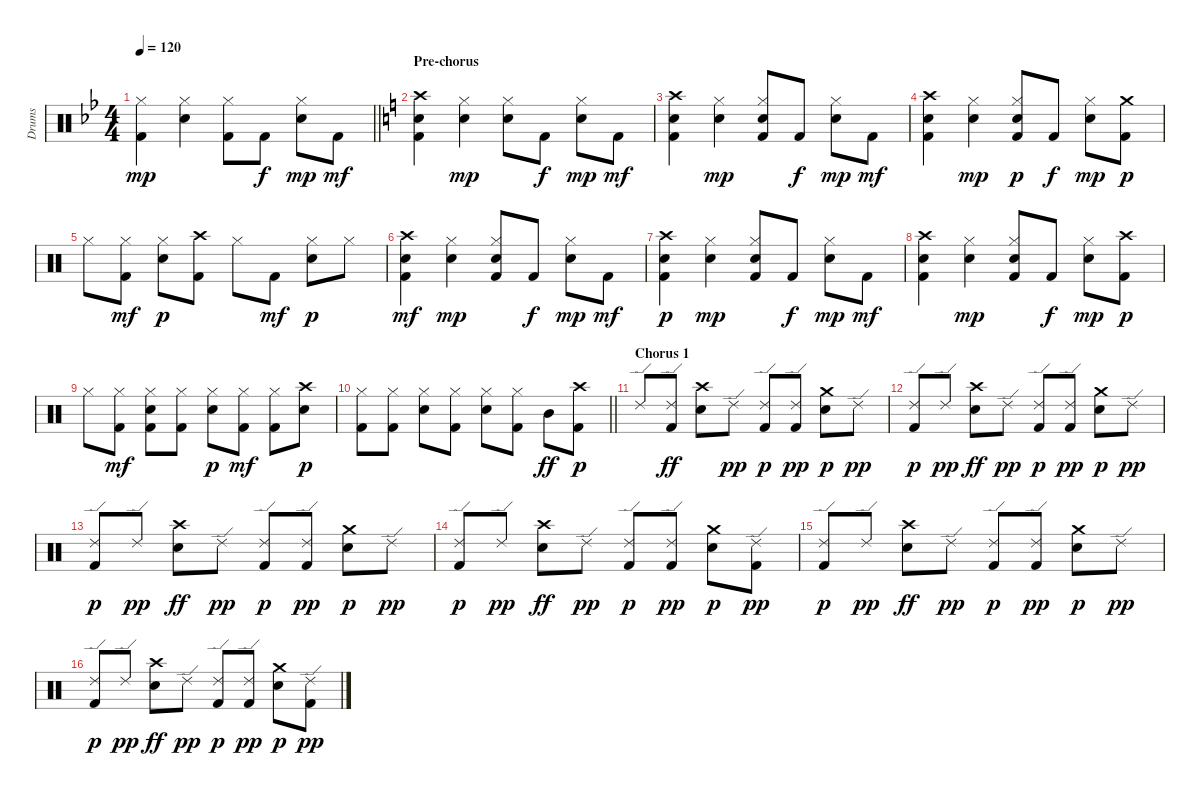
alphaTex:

\track ("Drums" "Drums") {instrument percussion}
\staff {score}
\articulation defaults
\ts (4 4)
\tempo 120
\clef neutral
\barLineRight lightlight
\ks bb
("Kick (hit) 2" "Hi-Hat (closed)").4{dy mp} ("Electric Snare (hit)" "Hi-Hat (closed)").4 ("Kick (hit) 2" "Hi-Hat (closed)").8 "Kick (hit) 2".8{dy f} ("Electric Snare (hit)" "Hi-Hat (closed)").8{dy mp} "Kick (hit) 2".8{dy mf} |
\section ("" "Pre-chorus")
\ks aminor
("Kick (hit) 2" "Crash high (hit)" "Electric Snare (hit)").4 ("Electric Snare (hit)" "Hi-Hat (closed)").4{dy mp} ("Hi-Hat (closed)" "Electric Snare (hit)").8 "Kick (hit) 2".8{dy f} ("Electric Snare (hit)" "Hi-Hat (closed)").8{dy mp} "Kick (hit) 2".8{dy mf} |
\ks c
("Kick (hit) 2" "Crash high (hit)" "Electric Snare (hit)").4 ("Electric Snare (hit)" "Hi-Hat (closed)").4{dy mp} ("Kick (hit) 2" "Hi-Hat (closed)" "Electric Snare (hit)").8 "Kick (hit) 2".8{dy f} ("Electric Snare (hit)" "Hi-Hat (closed)").8{dy mp} "Kick (hit) 2".8{dy mf} |
("Kick (hit) 2" "Crash high (hit)" "Electric Snare (hit)").4 ("Electric Snare (hit)" "Hi-Hat (closed)").4{dy mp} ("Kick (hit) 2" "Hi-Hat (closed)" "Electric Snare (hit)").8{dy p} "Kick (hit) 2".8{dy f} ("Electric Snare (hit)" "Hi-Hat (closed)").8{dy mp} ("Kick (hit) 2" "Crash medium (hit)").8{dy p} |
"Hi-Hat (closed)".8 ("Hi-Hat (closed)" "Kick (hit) 2").8{dy mf} ("Hi-Hat (closed)" "Electric Snare (hit)").8{dy p} ("Kick (hit) 2" "Crash high (hit)").8 "Hi-Hat (closed)".8 "Kick (hit) 2".8{dy mf} ("Hi-Hat (closed)" "Electric Snare (hit)").8{dy p} "Hi-Hat (closed)".8 |
("Kick (hit) 2" "Crash high (hit)" "Electric Snare (hit)").4{dy mf} ("Electric Snare (hit)" "Hi-Hat (closed)").4{dy mp} ("Kick (hit) 2" "Hi-Hat (closed)" "Electric Snare (hit)").8 "Kick (hit) 2".8{dy f} ("Electric Snare (hit)" "Hi-Hat (closed)").8{dy mp} "Kick (hit) 2".8{dy mf} |
("Kick (hit) 2" "Crash high (hit)" "Electric Snare (hit)").4{dy p} ("Electric Snare (hit)" "Hi-Hat (closed)").4{dy mp} ("Kick (hit) 2" "Hi-Hat (closed)" "Electric Snare (hit)").8 "Kick (hit) 2".8{dy f} ("Electric Snare (hit)" "Hi-Hat (closed)").8{dy mp} "Kick (hit) 2".8{dy mf} |
("Kick (hit) 2" "Crash high (hit)" "Electric Snare (hit)").4 ("Electric Snare (hit)" "Hi-Hat (closed)").4{dy mp} ("Kick (hit) 2" "Hi-Hat (closed)" "Electric Snare (hit)").8 "Kick (hit) 2".8{dy f} ("Electric Snare (hit)" "Hi-Hat (closed)").8{dy mp} ("Kick (hit) 2" "Crash high (hit)").8{dy p} |
"Hi-Hat (closed)".8 ("Hi-Hat (closed)" "Kick (hit) 2").8{dy mf} ("Hi-Hat (closed)" "Electric Snare (hit)" "Kick (hit) 2").8 ("Hi-Hat (closed)" "Kick (hit) 2").8 ("Hi-Hat (closed)" "Electric Snare (hit)").8{dy p} ("Hi-Hat (closed)" "Kick (hit) 2").8{dy mf} ("Hi-Hat (closed)" "Kick (hit) 2").8 ("Crash high (hit)" "Electric Snare (hit)").8{dy p} |
\barLineRight lightlight
("Hi-Hat (closed)" "Kick (hit) 2").8 ("Hi-Hat (closed)" "Kick (hit) 2").8 ("Hi-Hat (closed)" "Electric Snare (hit)").8 ("Hi-Hat (closed)" "Kick (hit) 2").8 ("Hi-Hat (closed)" "Electric Snare (hit)").8 ("Hi-Hat (closed)" "Kick (hit) 2").8 "Mid Tom (hit)".8{dy ff} ("Kick (hit) 2" "Crash high (hit)").8{dy p} |
\section ("" "Chorus 1")
"Ride (edge) 2".8 ("Ride (edge) 2" "Kick (hit) 2").8{dy ff} ("Crash high (hit)" "Electric Snare (hit)").8 "Ride (edge) 2".8{dy pp} ("Kick (hit) 2" "Ride (edge) 2").8{dy p} ("Kick (hit) 2" "Ride (edge) 2").8{dy pp} ("Electric Snare (hit)" "Crash medium (hit)").8{dy p} "Ride (edge) 2".8{dy pp} |
("Ride (edge) 2" "Kick (hit) 2").8{dy p} "Ride (edge) 2".8{dy pp} ("Crash high (hit)" "Electric Snare (hit)").8{dy ff} "Ride (edge) 2".8{dy pp} ("Kick (hit) 2" "Ride (edge) 2").8{dy p} ("Kick (hit) 2" "Ride (edge) 2").8{dy pp} ("Electric Snare (hit)" "Crash medium (hit)").8{dy p} "Ride (edge) 2".8{dy pp} |
("Ride (edge) 2" "Kick (hit) 2").8{dy p} "Ride (edge) 2".8{dy pp} ("Crash high (hit)" "Electric Snare (hit)").8{dy ff} "Ride (edge) 2".8{dy pp} ("Kick (hit) 2" "Ride (edge) 2").8{dy p} ("Kick (hit) 2" "Ride (edge) 2").8{dy pp} ("Electric Snare (hit)" "Crash medium (hit)").8{dy p} "Ride (edge) 2".8{dy pp} |
("Ride (edge) 2" "Kick (hit) 2").8{dy p} "Ride (edge) 2".8{dy pp} ("Crash high (hit)" "Electric Snare (hit)").8{dy ff} "Ride (edge) 2".8{dy pp} ("Kick (hit) 2" "Ride (edge) 2").8{dy p} ("Kick (hit) 2" "Ride (edge) 2").8{dy pp} ("Electric Snare (hit)" "Crash medium (hit)").8{dy p} ("Ride (edge) 2" "Kick (hit) 2").8{dy pp} |
("Ride (edge) 2" "Kick (hit) 2").8{dy p} "Ride (edge) 2".8{dy pp} ("Crash high (hit)" "Electric Snare (hit)").8{dy ff} "Ride (edge) 2".8{dy pp} ("Kick (hit) 2" "Ride (edge) 2").8{dy p} ("Kick (hit) 2" "Ride (edge) 2").8{dy pp} ("Electric Snare (hit)" "Crash medium (hit)").8{dy p} "Ride (edge) 2".8{dy pp} |
("Ride (edge) 2" "Kick (hit) 2").8{dy p} "Ride (edge) 2".8{dy pp} ("Crash high (hit)" "Electric Snare (hit)").8{dy ff} "Ride (edge) 2".8{dy pp} ("Kick (hit) 2" "Ride (edge) 2").8{dy p} ("Kick (hit) 2" "Ride (edge) 2").8{dy pp} ("Electric Snare (hit)" "Crash medium (hit)").8{dy p} ("Ride (edge) 2" "Kick (hit) 2").8{dy pp}
